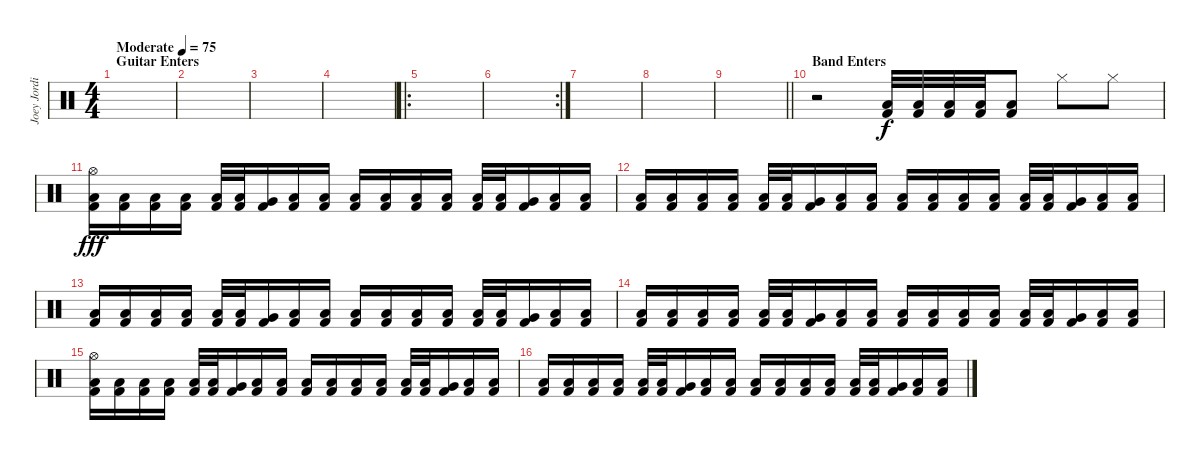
\track ("Joey Jordison" "Joey Jordi") {instrument percussion}
\staff {score}
\articulation defaults
\ts (4 4)
\section ("" "Guitar Enters")
\tempo (75 "Moderate")
\clef neutral
\ks c
|
|
|
|
\ro
|
\rc 2
|
|
|
\barLineRight lightlight
|
\section ("" "Band Enters")
r.2 ("Low Floor Tom (hit)" "Kick (hit) 2").32 ("Low Floor Tom (hit)" "Kick (hit) 2").32 ("Low Floor Tom (hit)" "Kick (hit) 2").32 ("Low Floor Tom (hit)" "Kick (hit) 2").32 ("Low Floor Tom (hit)" "Kick (hit) 2").8 "Hi-Hat (closed)".8{dy f} "Hi-Hat (closed)".8 |
("Hi-Hat (open)" "Low Floor Tom (hit)" "Kick (hit) 2").16{dy fff} ("Low Floor Tom (hit)" "Kick (hit) 2").16 ("Low Floor Tom (hit)" "Kick (hit) 2").16 ("Low Floor Tom (hit)" "Kick (hit) 2").16 ("Low Tom (hit)" "Kick (hit) 2").32 ("Low Tom (hit)" "Kick (hit) 2").32 ("Very Low Tom (hit)" "Kick (hit) 2").16 ("Low Floor Tom (hit)" "Kick (hit) 2").16 ("Low Floor Tom (hit)" "Kick (hit) 2").16 ("Low Floor Tom (hit)" "Kick (hit) 2").16 ("Low Floor Tom (hit)" "Kick (hit) 2").16 ("Low Floor Tom (hit)" "Kick (hit) 2").16 ("Low Floor Tom (hit)" "Kick (hit) 2").16 ("Low Tom (hit)" "Kick (hit) 2").32 ("Low Tom (hit)" "Kick (hit) 2").32 ("Very Low Tom (hit)" "Kick (hit) 2").16 ("Low Floor Tom (hit)" "Kick (hit) 2").16 ("Low Floor Tom (hit)" "Kick (hit) 2").16 |
("Low Floor Tom (hit)" "Kick (hit) 2").16 ("Low Floor Tom (hit)" "Kick (hit) 2").16 ("Low Floor Tom (hit)" "Kick (hit) 2").16 ("Low Floor Tom (hit)" "Kick (hit) 2").16 ("Low Tom (hit)" "Kick (hit) 2").32 ("Low Tom (hit)" "Kick (hit) 2").32 ("Very Low Tom (hit)" "Kick (hit) 2").16 ("Low Floor Tom (hit)" "Kick (hit) 2").16 ("Low Floor Tom (hit)" "Kick (hit) 2").16 ("Low Floor Tom (hit)" "Kick (hit) 2").16 ("Low Floor Tom (hit)" "Kick (hit) 2").16 ("Low Floor Tom (hit)" "Kick (hit) 2").16 ("Low Floor Tom (hit)" "Kick (hit) 2").16 ("Low Tom (hit)" "Kick (hit) 2").32 ("Low Tom (hit)" "Kick (hit) 2").32 ("Very Low Tom (hit)" "Kick (hit) 2").16 ("Low Floor Tom (hit)" "Kick (hit) 2").16 ("Low Floor Tom (hit)" "Kick (hit) 2").16 |
("Low Floor Tom (hit)" "Kick (hit) 2").16 ("Low Floor Tom (hit)" "Kick (hit) 2").16 ("Low Floor Tom (hit)" "Kick (hit) 2").16 ("Low Floor Tom (hit)" "Kick (hit) 2").16 ("Low Tom (hit)" "Kick (hit) 2").32 ("Low Tom (hit)" "Kick (hit) 2").32 ("Very Low Tom (hit)" "Kick (hit) 2").16 ("Low Floor Tom (hit)" "Kick (hit) 2").16 ("Low Floor Tom (hit)" "Kick (hit) 2").16 ("Low Floor Tom (hit)" "Kick (hit) 2").16 ("Low Floor Tom (hit)" "Kick (hit) 2").16 ("Low Floor Tom (hit)" "Kick (hit) 2").16 ("Low Floor Tom (hit)" "Kick (hit) 2").16 ("Low Tom (hit)" "Kick (hit) 2").32 ("Low Tom (hit)" "Kick (hit) 2").32 ("Very Low Tom (hit)" "Kick (hit) 2").16 ("Low Floor Tom (hit)" "Kick (hit) 2").16 ("Low Floor Tom (hit)" "Kick (hit) 2").16 |
("Low Floor Tom (hit)" "Kick (hit) 2").16 ("Low Floor Tom (hit)" "Kick (hit) 2").16 ("Low Floor Tom (hit)" "Kick (hit) 2").16 ("Low Floor Tom (hit)" "Kick (hit) 2").16 ("Low Tom (hit)" "Kick (hit) 2").32 ("Low Tom (hit)" "Kick (hit) 2").32 ("Very Low Tom (hit)" "Kick (hit) 2").16 ("Low Floor Tom (hit)" "Kick (hit) 2").16 ("Low Floor Tom (hit)" "Kick (hit) 2").16 ("Low Floor Tom (hit)" "Kick (hit) 2").16 ("Low Floor Tom (hit)" "Kick (hit) 2").16 ("Low Floor Tom (hit)" "Kick (hit) 2").16 ("Low Floor Tom (hit)" "Kick (hit) 2").16 ("Low Tom (hit)" "Kick (hit) 2").32 ("Low Tom (hit)" "Kick (hit) 2").32 ("Very Low Tom (hit)" "Kick (hit) 2").16 ("Low Floor Tom (hit)" "Kick (hit) 2").16 ("Low Floor Tom (hit)" "Kick (hit) 2").16 |
("Hi-Hat (open)" "Low Floor Tom (hit)" "Kick (hit) 2").16 ("Low Floor Tom (hit)" "Kick (hit) 2").16 ("Low Floor Tom (hit)" "Kick (hit) 2").16 ("Low Floor Tom (hit)" "Kick (hit) 2").16 ("Low Tom (hit)" "Kick (hit) 2").32 ("Low Tom (hit)" "Kick (hit) 2").32 ("Very Low Tom (hit)" "Kick (hit) 2").16 ("Low Floor Tom (hit)" "Kick (hit) 2").16 ("Low Floor Tom (hit)" "Kick (hit) 2").16 ("Low Floor Tom (hit)" "Kick (hit) 2").16 ("Low Floor Tom (hit)" "Kick (hit) 2").16 ("Low Floor Tom (hit)" "Kick (hit) 2").16 ("Low Floor Tom (hit)" "Kick (hit) 2").16 ("Low Tom (hit)" "Kick (hit) 2").32 ("Low Tom (hit)" "Kick (hit) 2").32 ("Very Low Tom (hit)" "Kick (hit) 2").16 ("Low Floor Tom (hit)" "Kick (hit) 2").16 ("Low Floor Tom (hit)" "Kick (hit) 2").16 |
("Low Floor Tom (hit)" "Kick (hit) 2").16 ("Low Floor Tom (hit)" "Kick (hit) 2").16 ("Low Floor Tom (hit)" "Kick (hit) 2").16 ("Low Floor Tom (hit)" "Kick (hit) 2").16 ("Low Tom (hit)" "Kick (hit) 2").32 ("Low Tom (hit)" "Kick (hit) 2").32 ("Very Low Tom (hit)" "Kick (hit) 2").16 ("Low Floor Tom (hit)" "Kick (hit) 2").16 ("Low Floor Tom (hit)" "Kick (hit) 2").16 ("Low Floor Tom (hit)" "Kick (hit) 2").16 ("Low Floor Tom (hit)" "Kick (hit) 2").16 ("Low Floor Tom (hit)" "Kick (hit) 2").16 ("Low Floor Tom (hit)" "Kick (hit) 2").16 ("Low Tom (hit)" "Kick (hit) 2").32 ("Low Tom (hit)" "Kick (hit) 2").32 ("Very Low Tom (hit)" "Kick (hit) 2").16 ("Low Floor Tom (hit)" "Kick (hit) 2").16 ("Low Floor Tom (hit)" "Kick (hit) 2").16
